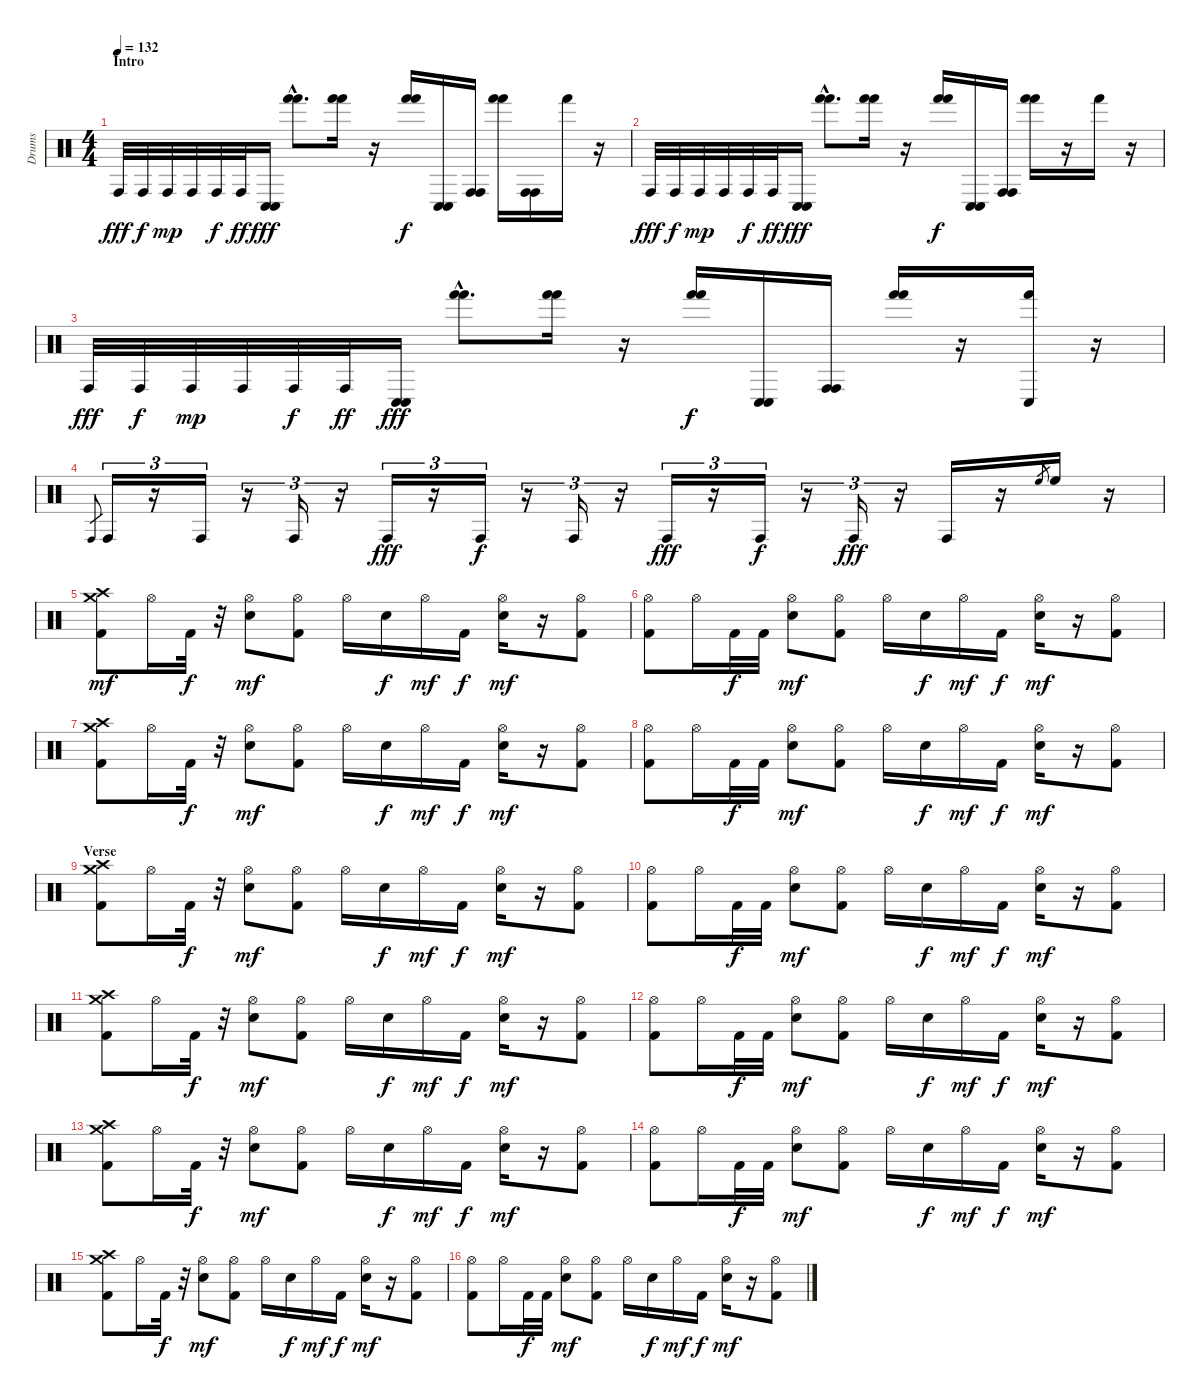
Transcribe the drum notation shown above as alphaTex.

\track ("Drums" "Drums") {instrument percussion}
\staff {score}
\articulation defaults
\ts (4 4)
\section ("" "Intro")
\tempo 132
\clef neutral
\ks c "Conga high (hit)".32{dy fff} "Conga high (hit)".32{dy f} "Conga high (hit)".32{dy mp} "Conga high (hit)".32 "Conga high (hit)".32{dy f} "Conga high (hit)".32{dy ff}
("Conga low (hit)" "Conga low (hit)").16{dy fff} ("Hand (hit)"{hac} "Hand (hit)"{hac}).8{d} ("Hand (hit)" "Hand (hit)").16 r.16 ("Hand (hit)" "Hand (hit)").16{dy f} ("Conga low (hit)" "Conga low (hit)").16 ("Conga high (hit)" "Conga high (hit)").16 ("Hand (hit)" "Hand (hit)").16 ("Conga high (hit)" "Conga high (hit)").16 "Hand (hit)".16 r.16 |
"Conga high (hit)".32{dy fff} "Conga high (hit)".32{dy f} "Conga high (hit)".32{dy mp} "Conga high (hit)".32 "Conga high (hit)".32{dy f} "Conga high (hit)".32{dy ff} ("Conga low (hit)" "Conga low (hit)").16{dy fff} ("Hand (hit)"{hac} "Hand (hit)"{hac}).8{d} ("Hand (hit)" "Hand (hit)").16 r.16 ("Hand (hit)" "Hand (hit)").16{dy f} ("Conga low (hit)" "Conga low (hit)").16 ("Conga high (hit)" "Conga high (hit)").16 ("Hand (hit)" "Hand (hit)").16 r.16 "Hand (hit)".16 r.16 |
"Conga high (hit)".32{dy fff} "Conga high (hit)".32{dy f} "Conga high (hit)".32{dy mp} "Conga high (hit)".32 "Conga high (hit)".32{dy f} "Conga high (hit)".32{dy ff} ("Conga low (hit)" "Conga low (hit)").16{dy fff} ("Hand (hit)"{hac} "Hand (hit)"{hac}).8{d} ("Hand (hit)" "Hand (hit)").16 r.16 ("Hand (hit)" "Hand (hit)").16{dy f} ("Conga low (hit)" "Conga low (hit)").16 ("Conga high (hit)" "Conga high (hit)").16 ("Hand (hit)" "Hand (hit)").16 r.16 ("Conga low (hit)" "Hand (hit)").16 r.16 |
"Conga high (hit)".8{gr} "Conga high (hit)".16{tu (3 2)} r.16{tu (3 2)} "Conga high (hit)".16{tu (3 2)} r.16{tu (3 2)} "Conga high (hit)".16{tu (3 2)} r.16{tu (3 2)} "Conga high (hit)".16{tu (3 2) dy fff} r.16{tu (3 2)} "Conga high (hit)".16{tu (3 2) dy f} r.16{tu (3 2)} "Conga high (hit)".16{tu (3 2)} r.16{tu (3 2)} "Conga high (hit)".16{tu (3 2) dy fff} r.16{tu (3 2)} "Conga high (hit)".16{tu (3 2) dy f} r.16{tu (3 2)} "Conga high (hit)".16{tu (3 2) dy fff} r.16{tu (3 2)} "Conga high (hit)".16 r.16 "High Floor Tom (hit)".8{gr} "High Floor Tom (hit)".16 r.16 |
("Crash high (hit)" "Crash medium (hit)" "Kick (hit) 2").8{dy mf} "Hi-Hat (open)".16 "Kick (hit) 2".32{dy f} r.32 ("Hi-Hat (open)" "Snare (hit) 2").8{dy mf} ("Hi-Hat (open)" "Kick (hit) 2").8 "Hi-Hat (open)".16 "Snare (hit) 2".16{dy f} "Hi-Hat (open)".16{dy mf} "Kick (hit) 2".16{dy f} ("Hi-Hat (open)" "Snare (hit) 2").16{dy mf} r.16 ("Hi-Hat (open)" "Kick (hit) 2").8 |
("Hi-Hat (open)" "Kick (hit) 2").8 "Hi-Hat (open)".16 "Kick (hit) 2".32{dy f} "Kick (hit) 2".32 ("Hi-Hat (open)" "Snare (hit) 2").8{dy mf} ("Hi-Hat (open)" "Kick (hit) 2").8 "Hi-Hat (open)".16 "Snare (hit) 2".16{dy f} "Hi-Hat (open)".16{dy mf} "Kick (hit) 2".16{dy f} ("Hi-Hat (open)" "Snare (hit) 2").16{dy mf} r.16 ("Hi-Hat (open)" "Kick (hit) 2").8 |
("Crash high (hit)" "Crash medium (hit)" "Kick (hit) 2").8 "Hi-Hat (open)".16 "Kick (hit) 2".32{dy f} r.32 ("Hi-Hat (open)" "Snare (hit) 2").8{dy mf} ("Hi-Hat (open)" "Kick (hit) 2").8 "Hi-Hat (open)".16 "Snare (hit) 2".16{dy f} "Hi-Hat (open)".16{dy mf} "Kick (hit) 2".16{dy f} ("Hi-Hat (open)" "Snare (hit) 2").16{dy mf} r.16 ("Hi-Hat (open)" "Kick (hit) 2").8 |
("Hi-Hat (open)" "Kick (hit) 2").8 "Hi-Hat (open)".16 "Kick (hit) 2".32{dy f} "Kick (hit) 2".32 ("Hi-Hat (open)" "Snare (hit) 2").8{dy mf} ("Hi-Hat (open)" "Kick (hit) 2").8 "Hi-Hat (open)".16 "Snare (hit) 2".16{dy f} "Hi-Hat (open)".16{dy mf} "Kick (hit) 2".16{dy f} ("Hi-Hat (open)" "Snare (hit) 2").16{dy mf} r.16 ("Hi-Hat (open)" "Kick (hit) 2").8 |
\section ("" "Verse")
("Crash high (hit)" "Crash medium (hit)" "Kick (hit) 2").8 "Hi-Hat (open)".16 "Kick (hit) 2".32{dy f} r.32 ("Hi-Hat (open)" "Snare (hit) 2").8{dy mf} ("Hi-Hat (open)" "Kick (hit) 2").8 "Hi-Hat (open)".16 "Snare (hit) 2".16{dy f} "Hi-Hat (open)".16{dy mf} "Kick (hit) 2".16{dy f} ("Hi-Hat (open)" "Snare (hit) 2").16{dy mf} r.16 ("Hi-Hat (open)" "Kick (hit) 2").8 |
("Hi-Hat (open)" "Kick (hit) 2").8 "Hi-Hat (open)".16 "Kick (hit) 2".32{dy f} "Kick (hit) 2".32 ("Hi-Hat (open)" "Snare (hit) 2").8{dy mf} ("Hi-Hat (open)" "Kick (hit) 2").8 "Hi-Hat (open)".16 "Snare (hit) 2".16{dy f} "Hi-Hat (open)".16{dy mf} "Kick (hit) 2".16{dy f} ("Hi-Hat (open)" "Snare (hit) 2").16{dy mf} r.16 ("Hi-Hat (open)" "Kick (hit) 2").8 |
("Crash high (hit)" "Crash medium (hit)" "Kick (hit) 2").8 "Hi-Hat (open)".16 "Kick (hit) 2".32{dy f} r.32 ("Hi-Hat (open)" "Snare (hit) 2").8{dy mf} ("Hi-Hat (open)" "Kick (hit) 2").8 "Hi-Hat (open)".16 "Snare (hit) 2".16{dy f} "Hi-Hat (open)".16{dy mf} "Kick (hit) 2".16{dy f} ("Hi-Hat (open)" "Snare (hit) 2").16{dy mf} r.16 ("Hi-Hat (open)" "Kick (hit) 2").8 |
("Hi-Hat (open)" "Kick (hit) 2").8 "Hi-Hat (open)".16 "Kick (hit) 2".32{dy f} "Kick (hit) 2".32 ("Hi-Hat (open)" "Snare (hit) 2").8{dy mf} ("Hi-Hat (open)" "Kick (hit) 2").8 "Hi-Hat (open)".16 "Snare (hit) 2".16{dy f} "Hi-Hat (open)".16{dy mf} "Kick (hit) 2".16{dy f} ("Hi-Hat (open)" "Snare (hit) 2").16{dy mf} r.16 ("Hi-Hat (open)" "Kick (hit) 2").8 |
("Crash high (hit)" "Crash medium (hit)" "Kick (hit) 2").8 "Hi-Hat (open)".16 "Kick (hit) 2".32{dy f} r.32 ("Hi-Hat (open)" "Snare (hit) 2").8{dy mf} ("Hi-Hat (open)" "Kick (hit) 2").8 "Hi-Hat (open)".16 "Snare (hit) 2".16{dy f} "Hi-Hat (open)".16{dy mf} "Kick (hit) 2".16{dy f} ("Hi-Hat (open)" "Snare (hit) 2").16{dy mf} r.16 ("Hi-Hat (open)" "Kick (hit) 2").8 |
("Hi-Hat (open)" "Kick (hit) 2").8 "Hi-Hat (open)".16 "Kick (hit) 2".32{dy f} "Kick (hit) 2".32 ("Hi-Hat (open)" "Snare (hit) 2").8{dy mf} ("Hi-Hat (open)" "Kick (hit) 2").8 "Hi-Hat (open)".16 "Snare (hit) 2".16{dy f} "Hi-Hat (open)".16{dy mf} "Kick (hit) 2".16{dy f} ("Hi-Hat (open)" "Snare (hit) 2").16{dy mf} r.16 ("Hi-Hat (open)" "Kick (hit) 2").8 |
("Crash high (hit)" "Crash medium (hit)" "Kick (hit) 2").8 "Hi-Hat (open)".16 "Kick (hit) 2".32{dy f} r.32 ("Hi-Hat (open)" "Snare (hit) 2").8{dy mf} ("Hi-Hat (open)" "Kick (hit) 2").8 "Hi-Hat (open)".16 "Snare (hit) 2".16{dy f} "Hi-Hat (open)".16{dy mf} "Kick (hit) 2".16{dy f} ("Hi-Hat (open)" "Snare (hit) 2").16{dy mf} r.16 ("Hi-Hat (open)" "Kick (hit) 2").8 |
("Hi-Hat (open)" "Kick (hit) 2").8 "Hi-Hat (open)".16 "Kick (hit) 2".32{dy f} "Kick (hit) 2".32 ("Hi-Hat (open)" "Snare (hit) 2").8{dy mf} ("Hi-Hat (open)" "Kick (hit) 2").8 "Hi-Hat (open)".16 "Snare (hit) 2".16{dy f} "Hi-Hat (open)".16{dy mf} "Kick (hit) 2".16{dy f} ("Hi-Hat (open)" "Snare (hit) 2").16{dy mf} r.16 ("Hi-Hat (open)" "Kick (hit) 2").8
